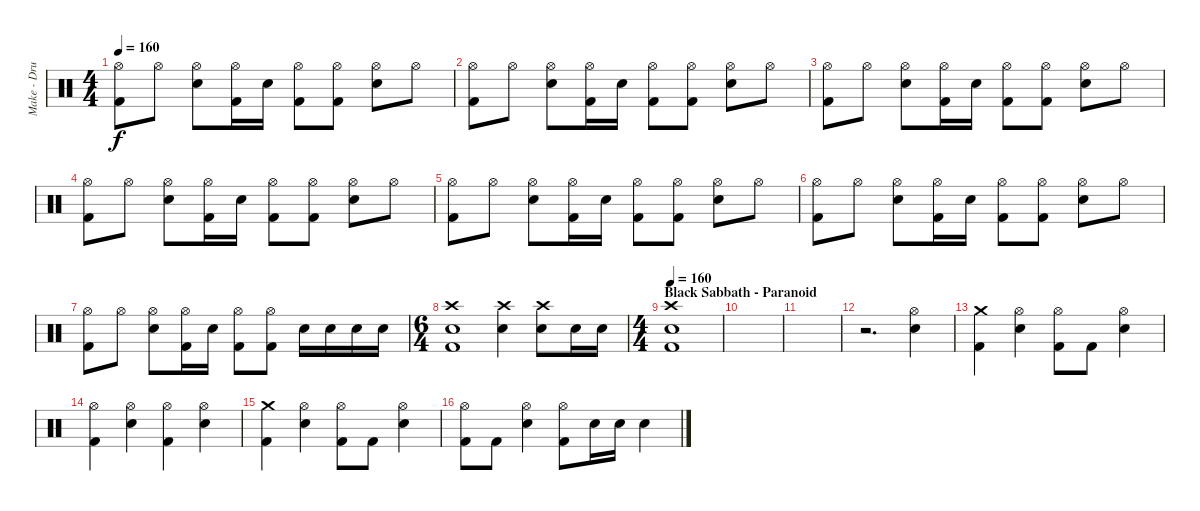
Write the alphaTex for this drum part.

\track ("Make - Drums" "Make - Dru") {instrument percussion}
\staff {score}
\articulation defaults
\ts (4 4)
\tempo 160
\clef neutral
\ks c
("Hi-Hat (open)" "Kick (hit) 2").8{dy f} "Hi-Hat (open)".8 ("Hi-Hat (open)" "Electric Snare (hit)").8 ("Hi-Hat (open)" "Kick (hit) 2").16 "Electric Snare (hit)".16 ("Hi-Hat (open)" "Kick (hit) 2").8 ("Hi-Hat (open)" "Kick (hit) 2").8 ("Hi-Hat (open)" "Electric Snare (hit)").8 "Hi-Hat (open)".8 |
("Hi-Hat (open)" "Kick (hit) 2").8 "Hi-Hat (open)".8 ("Hi-Hat (open)" "Electric Snare (hit)").8 ("Hi-Hat (open)" "Kick (hit) 2").16 "Electric Snare (hit)".16 ("Hi-Hat (open)" "Kick (hit) 2").8 ("Hi-Hat (open)" "Kick (hit) 2").8 ("Hi-Hat (open)" "Electric Snare (hit)").8 "Hi-Hat (open)".8 |
("Hi-Hat (open)" "Kick (hit) 2").8 "Hi-Hat (open)".8 ("Hi-Hat (open)" "Electric Snare (hit)").8 ("Hi-Hat (open)" "Kick (hit) 2").16 "Electric Snare (hit)".16 ("Hi-Hat (open)" "Kick (hit) 2").8 ("Hi-Hat (open)" "Kick (hit) 2").8 ("Hi-Hat (open)" "Electric Snare (hit)").8 "Hi-Hat (open)".8 |
("Hi-Hat (open)" "Kick (hit) 2").8 "Hi-Hat (open)".8 ("Hi-Hat (open)" "Electric Snare (hit)").8 ("Hi-Hat (open)" "Kick (hit) 2").16 "Electric Snare (hit)".16 ("Hi-Hat (open)" "Kick (hit) 2").8 ("Hi-Hat (open)" "Kick (hit) 2").8 ("Hi-Hat (open)" "Electric Snare (hit)").8 "Hi-Hat (open)".8 |
("Hi-Hat (open)" "Kick (hit) 2").8 "Hi-Hat (open)".8 ("Hi-Hat (open)" "Electric Snare (hit)").8 ("Hi-Hat (open)" "Kick (hit) 2").16 "Electric Snare (hit)".16 ("Hi-Hat (open)" "Kick (hit) 2").8 ("Hi-Hat (open)" "Kick (hit) 2").8 ("Hi-Hat (open)" "Electric Snare (hit)").8 "Hi-Hat (open)".8 |
("Hi-Hat (open)" "Kick (hit) 2").8 "Hi-Hat (open)".8 ("Hi-Hat (open)" "Electric Snare (hit)").8 ("Hi-Hat (open)" "Kick (hit) 2").16 "Electric Snare (hit)".16 ("Hi-Hat (open)" "Kick (hit) 2").8 ("Hi-Hat (open)" "Kick (hit) 2").8 ("Hi-Hat (open)" "Electric Snare (hit)").8 "Hi-Hat (open)".8 |
("Hi-Hat (open)" "Kick (hit) 2").8 "Hi-Hat (open)".8 ("Hi-Hat (open)" "Electric Snare (hit)").8 ("Hi-Hat (open)" "Kick (hit) 2").16 "Electric Snare (hit)".16 ("Hi-Hat (open)" "Kick (hit) 2").8 ("Hi-Hat (open)" "Kick (hit) 2").8 "Electric Snare (hit)".16 "Electric Snare (hit)".16 "Electric Snare (hit)".16 "Electric Snare (hit)".16 |
\ts (6 4)
("Crash high (hit)" "Kick (hit) 2" "Electric Snare (hit)").1 ("Crash high (hit)" "Electric Snare (hit)").4 ("Crash high (hit)" "Electric Snare (hit)").8 "Electric Snare (hit)".16 "Electric Snare (hit)".16 |
\ts (4 4)
\section ("" "Black Sabbath - Paranoid")
\tempo 160
("Crash high (hit)" "Kick (hit) 2" "Electric Snare (hit)").1 |
|
|
r.2{d} ("Snare (hit) 2" "Hi-Hat (open)").4 |
("Kick (hit) 2" "Crash medium (hit)").4 ("Snare (hit) 2" "Hi-Hat (open)").4 ("Kick (hit) 2" "Hi-Hat (open)").8 "Kick (hit) 2".8 ("Electric Snare (hit)" "Hi-Hat (open)").4 |
("Kick (hit) 2" "Hi-Hat (open)").4 ("Snare (hit) 2" "Hi-Hat (open)").4 ("Kick (hit) 2" "Hi-Hat (open)").4 ("Snare (hit) 2" "Hi-Hat (open)").4 |
("Kick (hit) 2" "Crash medium (hit)").4 ("Snare (hit) 2" "Hi-Hat (open)").4 ("Kick (hit) 2" "Hi-Hat (open)").8 "Kick (hit) 2".8 ("Snare (hit) 2" "Hi-Hat (open)").4 |
("Kick (hit) 2" "Hi-Hat (open)").8 "Kick (hit) 2".8 ("Snare (hit) 2" "Hi-Hat (open)").4 ("Kick (hit) 2" "Hi-Hat (open)").8 "Snare (hit) 2".16 "Snare (hit) 2".16 "Snare (hit) 2".4
